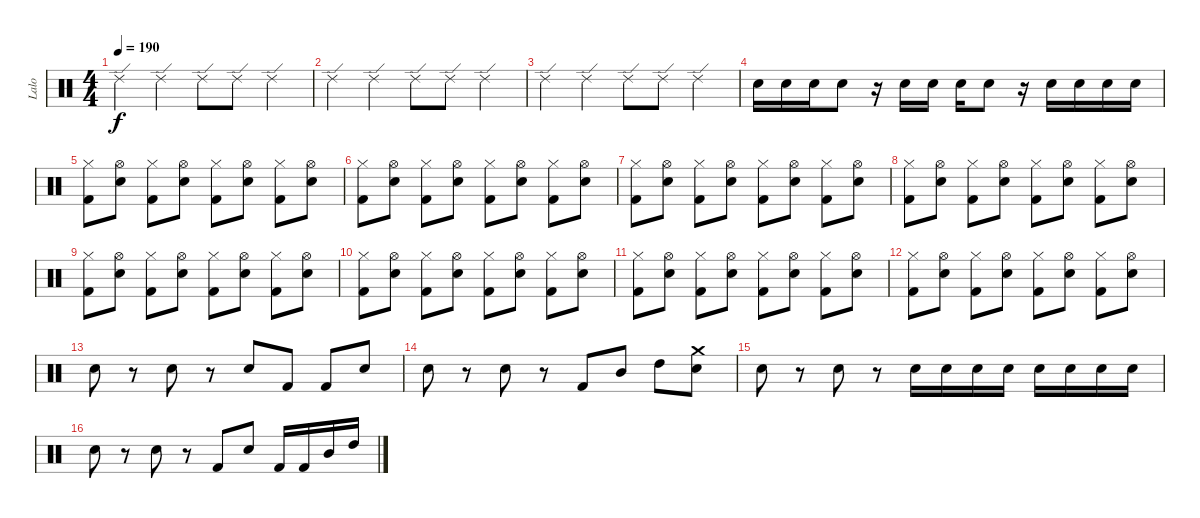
\track ("Lalo" "Lalo") {instrument percussion}
\staff {score}
\articulation defaults
\ts (4 4)
\tempo 190
\clef neutral
\ks c "Ride (edge) 2".4{dy f} "Ride (edge) 2".4 "Ride (edge) 2".8 "Ride (edge) 2".8 "Ride (edge) 2".4
|
"Ride (edge) 2".4 "Ride (edge) 2".4 "Ride (edge) 2".8 "Ride (edge) 2".8 "Ride (edge) 2".4 |
"Ride (edge) 2".4 "Ride (edge) 2".4 "Ride (edge) 2".8 "Ride (edge) 2".8 "Ride (edge) 2".4 |
"Electric Snare (hit)".16 "Electric Snare (hit)".16 "Electric Snare (hit)".16 "Electric Snare (hit)".8 r.16 "Electric Snare (hit)".16 "Electric Snare (hit)".16 "Electric Snare (hit)".16 "Electric Snare (hit)".8 r.16 "Electric Snare (hit)".16 "Electric Snare (hit)".16 "Electric Snare (hit)".16 "Electric Snare (hit)".16 |
("Hi-Hat (closed)" "Kick (hit) 2").8 ("Hi-Hat (open)" "Electric Snare (hit)").8 ("Hi-Hat (closed)" "Kick (hit) 2").8 ("Hi-Hat (open)" "Electric Snare (hit)").8 ("Hi-Hat (closed)" "Kick (hit) 2").8 ("Hi-Hat (open)" "Electric Snare (hit)").8 ("Hi-Hat (closed)" "Kick (hit) 2").8 ("Hi-Hat (open)" "Electric Snare (hit)").8 |
("Hi-Hat (closed)" "Kick (hit) 2").8 ("Hi-Hat (open)" "Electric Snare (hit)").8 ("Hi-Hat (closed)" "Kick (hit) 2").8 ("Hi-Hat (open)" "Electric Snare (hit)").8 ("Hi-Hat (closed)" "Kick (hit) 2").8 ("Hi-Hat (open)" "Electric Snare (hit)").8 ("Hi-Hat (closed)" "Kick (hit) 2").8 ("Hi-Hat (open)" "Electric Snare (hit)").8 |
("Hi-Hat (closed)" "Kick (hit) 2").8 ("Hi-Hat (open)" "Electric Snare (hit)").8 ("Hi-Hat (closed)" "Kick (hit) 2").8 ("Hi-Hat (open)" "Electric Snare (hit)").8 ("Hi-Hat (closed)" "Kick (hit) 2").8 ("Hi-Hat (open)" "Electric Snare (hit)").8 ("Hi-Hat (closed)" "Kick (hit) 2").8 ("Hi-Hat (open)" "Electric Snare (hit)").8 |
("Hi-Hat (closed)" "Kick (hit) 2").8 ("Hi-Hat (open)" "Electric Snare (hit)").8 ("Hi-Hat (closed)" "Kick (hit) 2").8 ("Hi-Hat (open)" "Electric Snare (hit)").8 ("Hi-Hat (closed)" "Kick (hit) 2").8 ("Hi-Hat (open)" "Electric Snare (hit)").8 ("Hi-Hat (closed)" "Kick (hit) 2").8 ("Hi-Hat (open)" "Electric Snare (hit)").8 |
("Hi-Hat (closed)" "Kick (hit) 2").8 ("Hi-Hat (open)" "Electric Snare (hit)").8 ("Hi-Hat (closed)" "Kick (hit) 2").8 ("Hi-Hat (open)" "Electric Snare (hit)").8 ("Hi-Hat (closed)" "Kick (hit) 2").8 ("Hi-Hat (open)" "Electric Snare (hit)").8 ("Hi-Hat (closed)" "Kick (hit) 2").8 ("Hi-Hat (open)" "Electric Snare (hit)").8 |
("Hi-Hat (closed)" "Kick (hit) 2").8 ("Hi-Hat (open)" "Electric Snare (hit)").8 ("Hi-Hat (closed)" "Kick (hit) 2").8 ("Hi-Hat (open)" "Electric Snare (hit)").8 ("Hi-Hat (closed)" "Kick (hit) 2").8 ("Hi-Hat (open)" "Electric Snare (hit)").8 ("Hi-Hat (closed)" "Kick (hit) 2").8 ("Hi-Hat (open)" "Electric Snare (hit)").8 |
("Hi-Hat (closed)" "Kick (hit) 2").8 ("Hi-Hat (open)" "Electric Snare (hit)").8 ("Hi-Hat (closed)" "Kick (hit) 2").8 ("Hi-Hat (open)" "Electric Snare (hit)").8 ("Hi-Hat (closed)" "Kick (hit) 2").8 ("Hi-Hat (open)" "Electric Snare (hit)").8 ("Hi-Hat (closed)" "Kick (hit) 2").8 ("Hi-Hat (open)" "Electric Snare (hit)").8 |
("Hi-Hat (closed)" "Kick (hit) 2").8 ("Hi-Hat (open)" "Electric Snare (hit)").8 ("Hi-Hat (closed)" "Kick (hit) 2").8 ("Hi-Hat (open)" "Electric Snare (hit)").8 ("Hi-Hat (closed)" "Kick (hit) 2").8 ("Hi-Hat (open)" "Electric Snare (hit)").8 ("Hi-Hat (closed)" "Kick (hit) 2").8 ("Hi-Hat (open)" "Electric Snare (hit)").8 |
"Electric Snare (hit)".8 r.8 "Electric Snare (hit)".8 r.8 "Electric Snare (hit)".8 "Kick (hit) 2".8 "Kick (hit) 2".8 "Electric Snare (hit)".8 |
"Electric Snare (hit)".8 r.8 "Electric Snare (hit)".8 r.8 "Kick (hit) 2".8 "Mid Tom (hit)".8 "High Tom (hit)".8 ("Crash medium (hit)" "Electric Snare (hit)").8 |
"Electric Snare (hit)".8 r.8 "Electric Snare (hit)".8 r.8 "Electric Snare (hit)".16 "Electric Snare (hit)".16 "Electric Snare (hit)".16 "Electric Snare (hit)".16 "Electric Snare (hit)".16 "Electric Snare (hit)".16 "Electric Snare (hit)".16 "Electric Snare (hit)".16 |
"Electric Snare (hit)".8 r.8 "Electric Snare (hit)".8 r.8 "Kick (hit) 2".8 "Electric Snare (hit)".8 "Kick (hit) 2".16 "Kick (hit) 2".16 "Mid Tom (hit)".16 "High Tom (hit)".16
